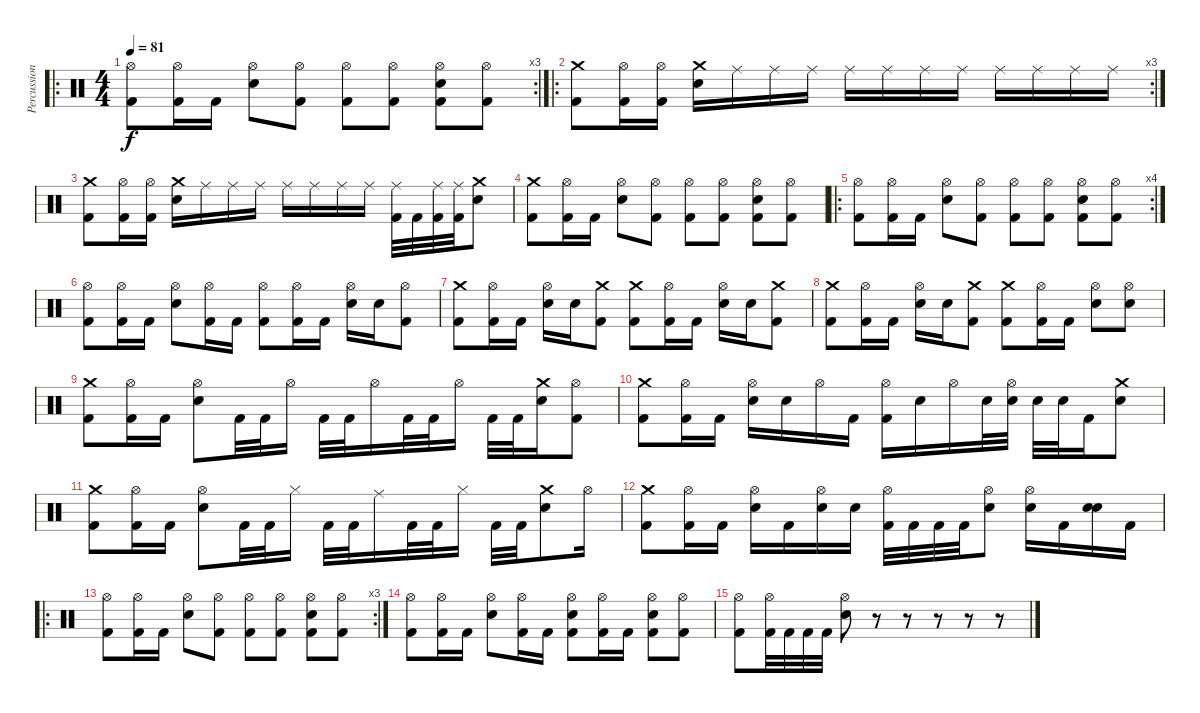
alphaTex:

\track ("Percussion" "Percussion") {instrument percussion}
\staff {score}
\articulation defaults
\ro
\rc 3
\ts (4 4)
\tempo 81
\clef neutral
\ks c
("Hi-Hat (open)" "Kick (hit) 2").8{dy f} ("Hi-Hat (open)" "Kick (hit) 2").16 "Kick (hit) 2".16 ("Hi-Hat (open)" "Electric Snare (hit)").8 ("Hi-Hat (open)" "Kick (hit) 2").8 ("Hi-Hat (open)" "Kick (hit) 2").8 ("Hi-Hat (open)" "Kick (hit) 2").8 ("Hi-Hat (open)" "Electric Snare (hit)" "Kick (hit) 2").8 ("Hi-Hat (open)" "Kick (hit) 2").8 |
\ro
\rc 3
("Crash medium (hit)" "Kick (hit) 2").8 ("Hi-Hat (open)" "Kick (hit) 2").16 ("Hi-Hat (open)" "Kick (hit) 2").16 ("Crash medium (hit)" "Electric Snare (hit)").16 "Ride (middle)".16 "Ride (middle)".16 "Ride (middle)".16 "Ride (middle)".16 "Ride (middle)".16 "Ride (middle)".16 "Ride (middle)".16 "Ride (middle)".16 "Ride (middle)".16 "Ride (middle)".16 "Ride (middle)".16 |
("Crash medium (hit)" "Kick (hit) 2").8 ("Hi-Hat (open)" "Kick (hit) 2").16 ("Hi-Hat (open)" "Kick (hit) 2").16 ("Crash medium (hit)" "Electric Snare (hit)").16 "Ride (middle)".16 "Ride (middle)".16 "Ride (middle)".16 "Ride (middle)".16 "Ride (middle)".16 "Ride (middle)".16 "Ride (middle)".16 ("Ride (middle)" "Kick (hit) 2").32 "Kick (hit) 2".32 ("Ride (middle)" "Kick (hit) 2").32 ("Ride (middle)" "Kick (hit) 2").32 ("Crash medium (hit)" "Electric Snare (hit)").8 |
("Crash medium (hit)" "Kick (hit) 2").8 ("Hi-Hat (open)" "Kick (hit) 2").16 "Kick (hit) 2".16 ("Hi-Hat (open)" "Electric Snare (hit)").8 ("Hi-Hat (open)" "Kick (hit) 2").8 ("Hi-Hat (open)" "Kick (hit) 2").8 ("Hi-Hat (open)" "Kick (hit) 2").8 ("Hi-Hat (open)" "Electric Snare (hit)" "Kick (hit) 2").8 ("Hi-Hat (open)" "Kick (hit) 2").8 |
\ro
\rc 4
("Hi-Hat (open)" "Kick (hit) 2").8 ("Hi-Hat (open)" "Kick (hit) 2").16 "Kick (hit) 2".16 ("Hi-Hat (open)" "Electric Snare (hit)").8 ("Hi-Hat (open)" "Kick (hit) 2").8 ("Hi-Hat (open)" "Kick (hit) 2").8 ("Hi-Hat (open)" "Kick (hit) 2").8 ("Hi-Hat (open)" "Electric Snare (hit)" "Kick (hit) 2").8 ("Hi-Hat (open)" "Kick (hit) 2").8 |
("Hi-Hat (open)" "Kick (hit) 2").8 ("Hi-Hat (open)" "Kick (hit) 2").16 "Kick (hit) 2".16 ("Hi-Hat (open)" "Electric Snare (hit)").8 ("Hi-Hat (open)" "Kick (hit) 2").16 "Kick (hit) 2".16 ("Hi-Hat (open)" "Kick (hit) 2").8 ("Hi-Hat (open)" "Kick (hit) 2").16 "Kick (hit) 2".16 ("Hi-Hat (open)" "Electric Snare (hit)").16 "Electric Snare (hit)".16 ("Hi-Hat (open)" "Kick (hit) 2").8 |
("Crash medium (hit)" "Kick (hit) 2").8 ("Hi-Hat (open)" "Kick (hit) 2").16 "Kick (hit) 2".16 ("Electric Snare (hit)" "Hi-Hat (open)").16 "Electric Snare (hit)".16 ("Crash medium (hit)" "Kick (hit) 2").8 ("Crash medium (hit)" "Kick (hit) 2").8 ("Hi-Hat (open)" "Kick (hit) 2").16 "Kick (hit) 2".16 ("Hi-Hat (open)" "Electric Snare (hit)").16 "Electric Snare (hit)".16 ("Crash medium (hit)" "Kick (hit) 2").8 |
("Crash medium (hit)" "Kick (hit) 2").8 ("Hi-Hat (open)" "Kick (hit) 2").16 "Kick (hit) 2".16 ("Hi-Hat (open)" "Electric Snare (hit)").16 "Electric Snare (hit)".16 ("Crash medium (hit)" "Kick (hit) 2").8 ("Crash medium (hit)" "Kick (hit) 2").8 ("Hi-Hat (open)" "Kick (hit) 2").16 "Kick (hit) 2".16 ("Hi-Hat (open)" "Electric Snare (hit)").8 ("Hi-Hat (open)" "Electric Snare (hit)").8 |
("Crash medium (hit)" "Kick (hit) 2").8 ("Hi-Hat (open)" "Kick (hit) 2").16 "Kick (hit) 2".16 ("Hi-Hat (open)" "Electric Snare (hit)").8 "Kick (hit) 2".32 "Kick (hit) 2".32 "Hi-Hat (open)".16 "Kick (hit) 2".32 "Kick (hit) 2".32 "Hi-Hat (open)".16 "Kick (hit) 2".32 "Kick (hit) 2".32 "Hi-Hat (open)".16 "Kick (hit) 2".32 "Kick (hit) 2".32 ("Crash medium (hit)" "Electric Snare (hit)").16 ("Hi-Hat (open)" "Kick (hit) 2").8 |
("Crash medium (hit)" "Kick (hit) 2").8 ("Hi-Hat (open)" "Kick (hit) 2").16 "Kick (hit) 2".16 ("Hi-Hat (open)" "Electric Snare (hit)").16 "Electric Snare (hit)".16 "Hi-Hat (open)".16 "Kick (hit) 2".16 ("Hi-Hat (open)" "Kick (hit) 2").16 "Electric Snare (hit)".16 "Hi-Hat (open)".16 "Electric Snare (hit)".32 ("Hi-Hat (open)" "Electric Snare (hit)").32 "Electric Snare (hit)".32 "Electric Snare (hit)".32 "Kick (hit) 2".16 ("Crash medium (hit)" "Electric Snare (hit)").8 |
("Crash medium (hit)" "Kick (hit) 2").8 ("Hi-Hat (open)" "Kick (hit) 2").16 "Kick (hit) 2".16 ("Hi-Hat (open)" "Electric Snare (hit)").8 "Kick (hit) 2".32 "Kick (hit) 2".32 "Hi-Hat (closed)".16 "Kick (hit) 2".32 "Kick (hit) 2".32 "Ride (middle)".16 "Kick (hit) 2".32 "Kick (hit) 2".32 "Hi-Hat (closed)".16 "Kick (hit) 2".32 "Kick (hit) 2".32 ("Crash medium (hit)" "Electric Snare (hit)").8 "Hi-Hat (open)".16 |
("Crash medium (hit)" "Kick (hit) 2").8 ("Hi-Hat (open)" "Kick (hit) 2").16 "Kick (hit) 2".16 ("Hi-Hat (open)" "Electric Snare (hit)").16 "Kick (hit) 2".16 ("Hi-Hat (open)" "Electric Snare (hit)").16 "Electric Snare (hit)".16 ("Hi-Hat (open)" "Kick (hit) 2").32 "Kick (hit) 2".32 "Kick (hit) 2".32 "Kick (hit) 2".32 ("Hi-Hat (open)" "Electric Snare (hit)").8 ("Hi-Hat (open)" "Electric Snare (hit)").16 "Kick (hit) 2".16 ("Electric Snare (hit)" "Electric Snare (hit)").16 "Kick (hit) 2".16 |
\ro
\rc 3
("Hi-Hat (open)" "Kick (hit) 2").8 ("Hi-Hat (open)" "Kick (hit) 2").16 "Kick (hit) 2".16 ("Hi-Hat (open)" "Electric Snare (hit)").8 ("Hi-Hat (open)" "Kick (hit) 2").8 ("Hi-Hat (open)" "Kick (hit) 2").8 ("Hi-Hat (open)" "Kick (hit) 2").8 ("Hi-Hat (open)" "Electric Snare (hit)" "Kick (hit) 2").8 ("Hi-Hat (open)" "Kick (hit) 2").8 |
("Hi-Hat (open)" "Kick (hit) 2").8 ("Hi-Hat (open)" "Kick (hit) 2").16 "Kick (hit) 2".16 ("Hi-Hat (open)" "Electric Snare (hit)").8 ("Hi-Hat (open)" "Kick (hit) 2").16 "Kick (hit) 2".16 ("Hi-Hat (open)" "Electric Snare (hit)" "Kick (hit) 2").8 ("Hi-Hat (open)" "Kick (hit) 2").16 "Kick (hit) 2".16 ("Hi-Hat (open)" "Electric Snare (hit)" "Kick (hit) 2").8 ("Hi-Hat (open)" "Kick (hit) 2").8 |
("Hi-Hat (open)" "Kick (hit) 2").8 ("Hi-Hat (open)" "Kick (hit) 2").32 "Kick (hit) 2".32 "Kick (hit) 2".32 "Kick (hit) 2".32 ("Hi-Hat (open)" "Electric Snare (hit)").8 r.8 r.8 r.8 r.8 r.8
